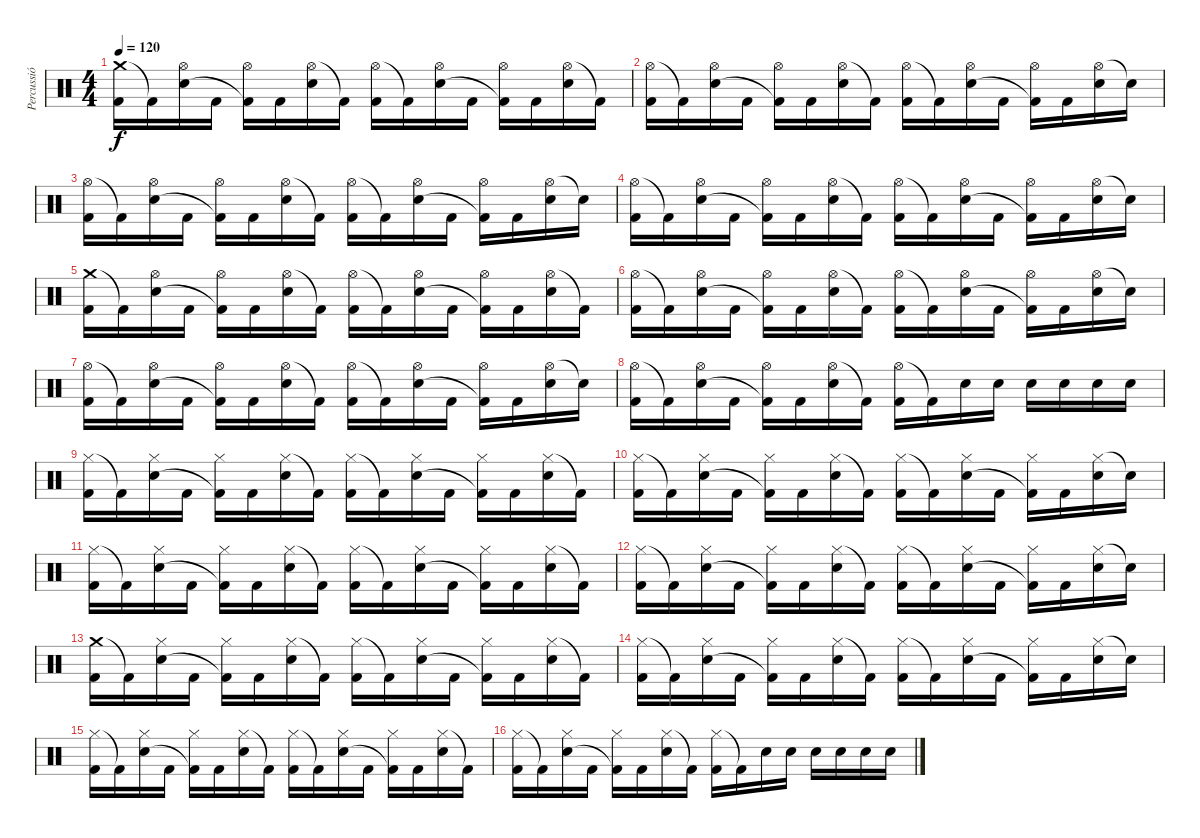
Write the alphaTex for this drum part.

\track ("Percussió" "Percussió") {instrument percussion}
\staff {score}
\articulation defaults
\ts (4 4)
\tempo 120
\clef neutral
\ks c
("Crash medium (hit)" "Kick (hit) 2").16{dy f} "Kick (hit) 2"{t}.16 ("Hi-Hat (open)" "Electric Snare (hit)").16 "Kick (hit) 2".16 ("Hi-Hat (open)" "Kick (hit) 2"{t}).16 "Kick (hit) 2".16 ("Hi-Hat (open)" "Electric Snare (hit)").16 "Kick (hit) 2"{t}.16 ("Hi-Hat (open)" "Kick (hit) 2").16 "Kick (hit) 2"{t}.16 ("Hi-Hat (open)" "Electric Snare (hit)").16 "Kick (hit) 2".16 ("Hi-Hat (open)" "Kick (hit) 2"{t}).16 "Kick (hit) 2".16 ("Hi-Hat (open)" "Electric Snare (hit)").16 "Kick (hit) 2"{t}.16 |
("Hi-Hat (open)" "Kick (hit) 2").16 "Kick (hit) 2"{t}.16 ("Hi-Hat (open)" "Electric Snare (hit)").16 "Kick (hit) 2".16 ("Hi-Hat (open)" "Kick (hit) 2"{t}).16 "Kick (hit) 2".16 ("Hi-Hat (open)" "Electric Snare (hit)").16 "Kick (hit) 2"{t}.16 ("Hi-Hat (open)" "Kick (hit) 2").16 "Kick (hit) 2"{t}.16 ("Hi-Hat (open)" "Electric Snare (hit)").16 "Kick (hit) 2".16 ("Hi-Hat (open)" "Kick (hit) 2"{t}).16 "Kick (hit) 2".16 ("Hi-Hat (open)" "Electric Snare (hit)").16 "Snare (hit)"{t}.16 |
("Hi-Hat (open)" "Kick (hit) 2").16 "Kick (hit) 2"{t}.16 ("Hi-Hat (open)" "Electric Snare (hit)").16 "Kick (hit) 2".16 ("Hi-Hat (open)" "Kick (hit) 2"{t}).16 "Kick (hit) 2".16 ("Hi-Hat (open)" "Electric Snare (hit)").16 "Kick (hit) 2"{t}.16 ("Hi-Hat (open)" "Kick (hit) 2").16 "Kick (hit) 2"{t}.16 ("Hi-Hat (open)" "Electric Snare (hit)").16 "Kick (hit) 2".16 ("Hi-Hat (open)" "Kick (hit) 2"{t}).16 "Kick (hit) 2".16 ("Hi-Hat (open)" "Electric Snare (hit)").16 "Snare (hit)"{t}.16 |
("Hi-Hat (open)" "Kick (hit) 2").16 "Kick (hit) 2"{t}.16 ("Hi-Hat (open)" "Electric Snare (hit)").16 "Kick (hit) 2".16 ("Hi-Hat (open)" "Kick (hit) 2"{t}).16 "Kick (hit) 2".16 ("Hi-Hat (open)" "Electric Snare (hit)").16 "Kick (hit) 2"{t}.16 ("Hi-Hat (open)" "Kick (hit) 2").16 "Kick (hit) 2"{t}.16 ("Hi-Hat (open)" "Electric Snare (hit)").16 "Kick (hit) 2".16 ("Hi-Hat (open)" "Kick (hit) 2"{t}).16 "Kick (hit) 2".16 ("Hi-Hat (open)" "Electric Snare (hit)").16 "Snare (hit)"{t}.16 |
("Crash medium (hit)" "Kick (hit) 2").16 "Kick (hit) 2"{t}.16 ("Hi-Hat (open)" "Electric Snare (hit)").16 "Kick (hit) 2".16 ("Hi-Hat (open)" "Kick (hit) 2"{t}).16 "Kick (hit) 2".16 ("Hi-Hat (open)" "Electric Snare (hit)").16 "Kick (hit) 2"{t}.16 ("Hi-Hat (open)" "Kick (hit) 2").16 "Kick (hit) 2"{t}.16 ("Hi-Hat (open)" "Electric Snare (hit)").16 "Kick (hit) 2".16 ("Hi-Hat (open)" "Kick (hit) 2"{t}).16 "Kick (hit) 2".16 ("Hi-Hat (open)" "Electric Snare (hit)").16 "Kick (hit) 2"{t}.16 |
("Hi-Hat (open)" "Kick (hit) 2").16 "Kick (hit) 2"{t}.16 ("Hi-Hat (open)" "Electric Snare (hit)").16 "Kick (hit) 2".16 ("Hi-Hat (open)" "Kick (hit) 2"{t}).16 "Kick (hit) 2".16 ("Hi-Hat (open)" "Electric Snare (hit)").16 "Kick (hit) 2"{t}.16 ("Hi-Hat (open)" "Kick (hit) 2").16 "Kick (hit) 2"{t}.16 ("Hi-Hat (open)" "Electric Snare (hit)").16 "Kick (hit) 2".16 ("Hi-Hat (open)" "Kick (hit) 2"{t}).16 "Kick (hit) 2".16 ("Hi-Hat (open)" "Electric Snare (hit)").16 "Snare (hit)"{t}.16 |
("Hi-Hat (open)" "Kick (hit) 2").16 "Kick (hit) 2"{t}.16 ("Hi-Hat (open)" "Electric Snare (hit)").16 "Kick (hit) 2".16 ("Hi-Hat (open)" "Kick (hit) 2"{t}).16 "Kick (hit) 2".16 ("Hi-Hat (open)" "Electric Snare (hit)").16 "Kick (hit) 2"{t}.16 ("Hi-Hat (open)" "Kick (hit) 2").16 "Kick (hit) 2"{t}.16 ("Hi-Hat (open)" "Electric Snare (hit)").16 "Kick (hit) 2".16 ("Hi-Hat (open)" "Kick (hit) 2"{t}).16 "Kick (hit) 2".16 ("Hi-Hat (open)" "Electric Snare (hit)").16 "Snare (hit)"{t}.16 |
("Hi-Hat (open)" "Kick (hit) 2").16 "Kick (hit) 2"{t}.16 ("Hi-Hat (open)" "Electric Snare (hit)").16 "Kick (hit) 2".16 ("Hi-Hat (open)" "Kick (hit) 2"{t}).16 "Kick (hit) 2".16 ("Hi-Hat (open)" "Electric Snare (hit)").16 "Kick (hit) 2"{t}.16 ("Hi-Hat (open)" "Kick (hit) 2").16 "Kick (hit) 2"{t}.16 "Electric Snare (hit)".16 "Electric Snare (hit)".16 "Electric Snare (hit)".16 "Electric Snare (hit)".16 "Electric Snare (hit)".16 "Electric Snare (hit)".16 |
("Hi-Hat (closed)" "Kick (hit) 2").16 "Kick (hit) 2"{t}.16 ("Hi-Hat (closed)" "Electric Snare (hit)").16 "Kick (hit) 2".16 ("Hi-Hat (closed)" "Kick (hit) 2"{t}).16 "Kick (hit) 2".16 ("Hi-Hat (closed)" "Electric Snare (hit)").16 "Kick (hit) 2"{t}.16 ("Hi-Hat (closed)" "Kick (hit) 2").16 "Kick (hit) 2"{t}.16 ("Hi-Hat (closed)" "Electric Snare (hit)").16 "Kick (hit) 2".16 ("Hi-Hat (closed)" "Kick (hit) 2"{t}).16 "Kick (hit) 2".16 ("Hi-Hat (closed)" "Electric Snare (hit)").16 "Kick (hit) 2"{t}.16 |
("Hi-Hat (closed)" "Kick (hit) 2").16 "Kick (hit) 2"{t}.16 ("Hi-Hat (closed)" "Electric Snare (hit)").16 "Kick (hit) 2".16 ("Hi-Hat (closed)" "Kick (hit) 2"{t}).16 "Kick (hit) 2".16 ("Hi-Hat (closed)" "Electric Snare (hit)").16 "Kick (hit) 2"{t}.16 ("Hi-Hat (closed)" "Kick (hit) 2").16 "Kick (hit) 2"{t}.16 ("Hi-Hat (closed)" "Electric Snare (hit)").16 "Kick (hit) 2".16 ("Hi-Hat (closed)" "Kick (hit) 2"{t}).16 "Kick (hit) 2".16 ("Hi-Hat (closed)" "Electric Snare (hit)").16 "Snare (hit)"{t}.16 |
("Hi-Hat (closed)" "Kick (hit) 2").16 "Kick (hit) 2"{t}.16 ("Hi-Hat (closed)" "Electric Snare (hit)").16 "Kick (hit) 2".16 ("Hi-Hat (closed)" "Kick (hit) 2"{t}).16 "Kick (hit) 2".16 ("Hi-Hat (closed)" "Electric Snare (hit)").16 "Kick (hit) 2"{t}.16 ("Hi-Hat (closed)" "Kick (hit) 2").16 "Kick (hit) 2"{t}.16 ("Hi-Hat (closed)" "Electric Snare (hit)").16 "Kick (hit) 2".16 ("Hi-Hat (closed)" "Kick (hit) 2"{t}).16 "Kick (hit) 2".16 ("Hi-Hat (closed)" "Electric Snare (hit)").16 "Kick (hit) 2"{t}.16 |
("Hi-Hat (closed)" "Kick (hit) 2").16 "Kick (hit) 2"{t}.16 ("Hi-Hat (closed)" "Electric Snare (hit)").16 "Kick (hit) 2".16 ("Hi-Hat (closed)" "Kick (hit) 2"{t}).16 "Kick (hit) 2".16 ("Hi-Hat (closed)" "Electric Snare (hit)").16 "Kick (hit) 2"{t}.16 ("Hi-Hat (closed)" "Kick (hit) 2").16 "Kick (hit) 2"{t}.16 ("Hi-Hat (closed)" "Electric Snare (hit)").16 "Kick (hit) 2".16 ("Hi-Hat (closed)" "Kick (hit) 2"{t}).16 "Kick (hit) 2".16 ("Hi-Hat (closed)" "Electric Snare (hit)").16 "Snare (hit)"{t}.16 |
("Crash medium (hit)" "Kick (hit) 2").16 "Kick (hit) 2"{t}.16 ("Hi-Hat (closed)" "Electric Snare (hit)").16 "Kick (hit) 2".16 ("Hi-Hat (closed)" "Kick (hit) 2"{t}).16 "Kick (hit) 2".16 ("Hi-Hat (closed)" "Electric Snare (hit)").16 "Kick (hit) 2"{t}.16 ("Hi-Hat (closed)" "Kick (hit) 2").16 "Kick (hit) 2"{t}.16 ("Hi-Hat (closed)" "Electric Snare (hit)").16 "Kick (hit) 2".16 ("Hi-Hat (closed)" "Kick (hit) 2"{t}).16 "Kick (hit) 2".16 ("Hi-Hat (closed)" "Electric Snare (hit)").16 "Kick (hit) 2"{t}.16 |
("Hi-Hat (closed)" "Kick (hit) 2").16 "Kick (hit) 2"{t}.16 ("Hi-Hat (closed)" "Electric Snare (hit)").16 "Kick (hit) 2".16 ("Hi-Hat (closed)" "Kick (hit) 2"{t}).16 "Kick (hit) 2".16 ("Hi-Hat (closed)" "Electric Snare (hit)").16 "Kick (hit) 2"{t}.16 ("Hi-Hat (closed)" "Kick (hit) 2").16 "Kick (hit) 2"{t}.16 ("Hi-Hat (closed)" "Electric Snare (hit)").16 "Kick (hit) 2".16 ("Hi-Hat (closed)" "Kick (hit) 2"{t}).16 "Kick (hit) 2".16 ("Hi-Hat (closed)" "Electric Snare (hit)").16 "Snare (hit)"{t}.16 |
("Hi-Hat (closed)" "Kick (hit) 2").16 "Kick (hit) 2"{t}.16 ("Hi-Hat (closed)" "Electric Snare (hit)").16 "Kick (hit) 2".16 ("Hi-Hat (closed)" "Kick (hit) 2"{t}).16 "Kick (hit) 2".16 ("Hi-Hat (closed)" "Electric Snare (hit)").16 "Kick (hit) 2"{t}.16 ("Hi-Hat (closed)" "Kick (hit) 2").16 "Kick (hit) 2"{t}.16 ("Hi-Hat (closed)" "Electric Snare (hit)").16 "Kick (hit) 2".16 ("Hi-Hat (closed)" "Kick (hit) 2"{t}).16 "Kick (hit) 2".16 ("Hi-Hat (closed)" "Electric Snare (hit)").16 "Kick (hit) 2"{t}.16 |
("Hi-Hat (closed)" "Kick (hit) 2").16 "Kick (hit) 2"{t}.16 ("Hi-Hat (closed)" "Electric Snare (hit)").16 "Kick (hit) 2".16 ("Hi-Hat (closed)" "Kick (hit) 2"{t}).16 "Kick (hit) 2".16 ("Hi-Hat (closed)" "Electric Snare (hit)").16 "Kick (hit) 2"{t}.16 ("Hi-Hat (closed)" "Kick (hit) 2").16 "Kick (hit) 2"{t}.16 "Electric Snare (hit)".16 "Electric Snare (hit)".16 "Electric Snare (hit)".16 "Electric Snare (hit)".16 "Electric Snare (hit)".16 "Electric Snare (hit)".16
